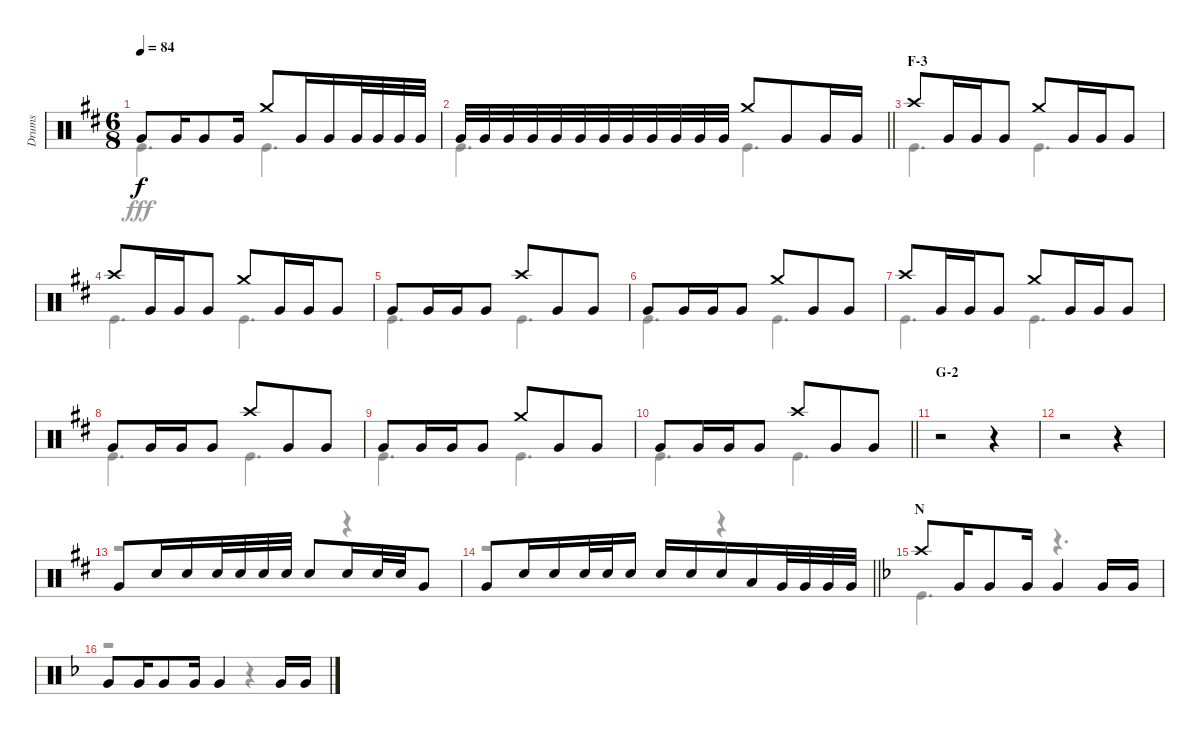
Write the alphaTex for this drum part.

\track ("Drums" "Drums") {instrument percussion}
\staff {score}
\articulation defaults
\voice
\ts (6 8)
\tempo 84
\clef neutral
\ks d "Very Low Tom (hit)".8{dy f} "Very Low Tom (hit)".16 "Very Low Tom (hit)".8 "Very Low Tom (hit)".16 "Crash medium (hit)".8 "Very Low Tom (hit)".16 "Very Low Tom (hit)".16 "Very Low Tom (hit)".32 "Very Low Tom (hit)".32 "Very Low Tom (hit)".32 "Very Low Tom (hit)".32
|
\barLineRight lightlight "Very Low Tom (hit)".32 "Very Low Tom (hit)".32 "Very Low Tom (hit)".32 "Very Low Tom (hit)".32 "Very Low Tom (hit)".32 "Very Low Tom (hit)".32 "Very Low Tom (hit)".32 "Very Low Tom (hit)".32 "Very Low Tom (hit)".32 "Very Low Tom (hit)".32 "Very Low Tom (hit)".32 "Very Low Tom (hit)".32 "Crash medium (hit)".8 "Very Low Tom (hit)".8 "Very Low Tom (hit)".16 "Very Low Tom (hit)".16
|
\section ("" "F-3")
"Crash high (hit)".8 "Very Low Tom (hit)".16 "Very Low Tom (hit)".16 "Very Low Tom (hit)".8 "Crash medium (hit)".8 "Very Low Tom (hit)".16 "Very Low Tom (hit)".16 "Very Low Tom (hit)".8 |
"Crash high (hit)".8 "Very Low Tom (hit)".16 "Very Low Tom (hit)".16 "Very Low Tom (hit)".8 "Crash medium (hit)".8 "Very Low Tom (hit)".16 "Very Low Tom (hit)".16 "Very Low Tom (hit)".8 |
"Very Low Tom (hit)".8 "Very Low Tom (hit)".16 "Very Low Tom (hit)".16 "Very Low Tom (hit)".8 "Crash high (hit)".8 "Very Low Tom (hit)".8 "Very Low Tom (hit)".8 |
"Very Low Tom (hit)".8 "Very Low Tom (hit)".16 "Very Low Tom (hit)".16 "Very Low Tom (hit)".8 "Crash medium (hit)".8 "Very Low Tom (hit)".8 "Very Low Tom (hit)".8 |
"Crash high (hit)".8 "Very Low Tom (hit)".16 "Very Low Tom (hit)".16 "Very Low Tom (hit)".8 "Crash medium (hit)".8 "Very Low Tom (hit)".16 "Very Low Tom (hit)".16 "Very Low Tom (hit)".8 |
"Very Low Tom (hit)".8 "Very Low Tom (hit)".16 "Very Low Tom (hit)".16 "Very Low Tom (hit)".8 "Crash high (hit)".8 "Very Low Tom (hit)".8 "Very Low Tom (hit)".8 |
"Very Low Tom (hit)".8 "Very Low Tom (hit)".16 "Very Low Tom (hit)".16 "Very Low Tom (hit)".8 "Crash medium (hit)".8 "Very Low Tom (hit)".8 "Very Low Tom (hit)".8 |
\barLineRight lightlight "Very Low Tom (hit)".8 "Very Low Tom (hit)".16 "Very Low Tom (hit)".16 "Very Low Tom (hit)".8 "Crash high (hit)".8 "Very Low Tom (hit)".8 "Very Low Tom (hit)".8
|
\section ("" "G-2")
r.2 r.4 |
r.2 r.4 |
"Very Low Tom (hit)".8 "Snare (hit) 2".16 "Snare (hit) 2".16 "Snare (hit) 2".32 "Snare (hit) 2".32 "Snare (hit) 2".32 "Snare (hit) 2".32 "Snare (hit) 2".8 "Snare (hit) 2".16 "Snare (hit) 2".32 "Snare (hit) 2".32 "Very Low Tom (hit)".8 |
\barLineRight lightlight "Very Low Tom (hit)".8 "Snare (hit) 2".16 "Snare (hit) 2".16 "Snare (hit) 2".32 "Snare (hit) 2".32 "Snare (hit) 2".16 "Snare (hit) 2".16 "Snare (hit) 2".16 "Snare (hit) 2".16 "Low Tom (hit)".16 "Very Low Tom (hit)".32 "Very Low Tom (hit)".32 "Very Low Tom (hit)".32 "Very Low Tom (hit)".32
|
\section ("" "N")
\ks f "Crash high (hit)".8 "Very Low Tom (hit)".16 "Very Low Tom (hit)".8 "Very Low Tom (hit)".16 "Very Low Tom (hit)".4 "Very Low Tom (hit)".16 "Very Low Tom (hit)".16
|
"Very Low Tom (hit)".8 "Very Low Tom (hit)".16 "Very Low Tom (hit)".8 "Very Low Tom (hit)".16 "Very Low Tom (hit)".4 "Very Low Tom (hit)".16 "Very Low Tom (hit)".16
\voice
\clef neutral
\ottava regular
\simile none
\ks d "Kick (hit)".4{d dy fff} "Kick (hit)".4{d}
|
\barLineRight lightlight "Kick (hit)".4{d} "Kick (hit)".4{d}
|
"Kick (hit)".4{d} "Kick (hit)".4{d} |
"Kick (hit)".4{d} "Kick (hit)".4{d} |
"Kick (hit)".4{d} "Kick (hit)".4{d} |
"Kick (hit)".4{d} "Kick (hit)".4{d} |
"Kick (hit)".4{d} "Kick (hit)".4{d} |
"Kick (hit)".4{d} "Kick (hit)".4{d} |
"Kick (hit)".4{d} "Kick (hit)".4{d} |
\barLineRight lightlight "Kick (hit)".4{d} "Kick (hit)".4{d}
|
r.2 r.4 |
r.2 r.4 |
r.2 r.4 |
\barLineRight lightlight
r.2 r.4 |
\ks f "Kick (hit)".4{d}
r.4{d} |
r.2 r.4
